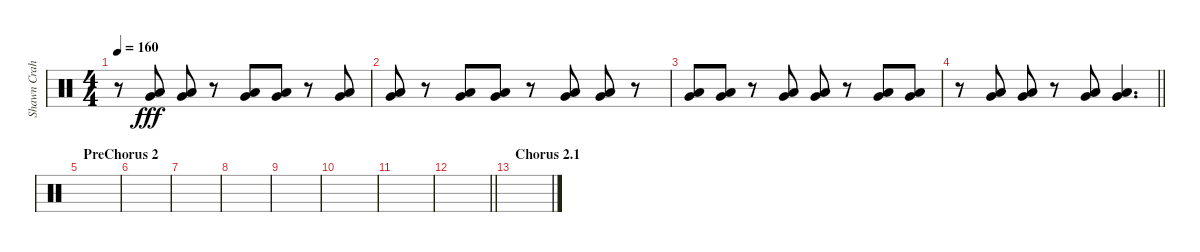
\track ("Shawn Crahan" "Shawn Crah") {instrument percussion}
\staff {score}
\articulation defaults
\ts (4 4)
\tempo 160
\clef neutral
\ks c
r.8{dy fff} ("Very Low Tom (hit)" "Low Floor Tom (hit)").8 ("Very Low Tom (hit)" "Low Floor Tom (hit)").8 r.8 ("Very Low Tom (hit)" "Low Floor Tom (hit)").8 ("Very Low Tom (hit)" "Low Floor Tom (hit)").8 r.8 ("Very Low Tom (hit)" "Low Floor Tom (hit)").8 |
("Very Low Tom (hit)" "Low Floor Tom (hit)").8 r.8 ("Very Low Tom (hit)" "Low Floor Tom (hit)").8 ("Very Low Tom (hit)" "Low Floor Tom (hit)").8 r.8 ("Very Low Tom (hit)" "Low Floor Tom (hit)").8 ("Very Low Tom (hit)" "Low Floor Tom (hit)").8 r.8 |
("Very Low Tom (hit)" "Low Floor Tom (hit)").8 ("Very Low Tom (hit)" "Low Floor Tom (hit)").8 r.8 ("Very Low Tom (hit)" "Low Floor Tom (hit)").8 ("Very Low Tom (hit)" "Low Floor Tom (hit)").8 r.8 ("Very Low Tom (hit)" "Low Floor Tom (hit)").8 ("Very Low Tom (hit)" "Low Floor Tom (hit)").8 |
\barLineRight lightlight
r.8 ("Very Low Tom (hit)" "Low Floor Tom (hit)").8 ("Very Low Tom (hit)" "Low Floor Tom (hit)").8 r.8 ("Very Low Tom (hit)" "Low Floor Tom (hit)").8 ("Very Low Tom (hit)" "Low Floor Tom (hit)").4{d} |
\section ("" "PreChorus 2")
|
|
|
|
|
|
|
\barLineRight lightlight
|
\section ("" "Chorus 2.1")
